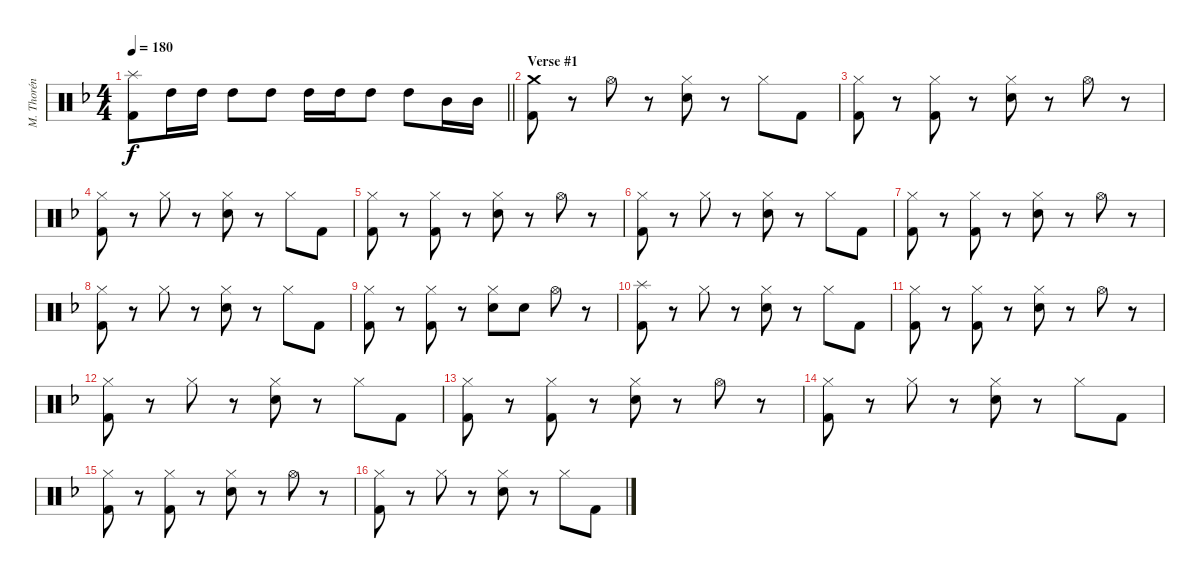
\track ("M. Thorén (Drums)" "M. Thorén ") {instrument percussion}
\staff {score}
\articulation defaults
\ts (4 4)
\tempo 180
\clef neutral
\barLineRight lightlight
\ks dminor
("Splash (hit)" "Kick (hit) 2").8{dy f} "High Tom (hit)".16 "High Tom (hit)".16 "High Tom (hit)".8 "High Tom (hit)".8 "High Tom (hit)".16 "High Tom (hit)".16 "High Tom (hit)".8 "High Tom (hit)".8 "Mid Tom (hit)".16 "Mid Tom (hit)".16 |
\section ("" "Verse #1")
("Crash medium (hit)" "Kick (hit) 2").8 r.8 "Hi-Hat (open)".8 r.8 ("Hi-Hat (closed)" "Electric Snare (hit)").8 r.8 "Hi-Hat (closed)".8 "Kick (hit) 2".8 |
("Hi-Hat (closed)" "Kick (hit) 2").8 r.8 ("Hi-Hat (closed)" "Kick (hit) 2").8 r.8 ("Hi-Hat (closed)" "Electric Snare (hit)").8 r.8 "Hi-Hat (open)".8 r.8 |
("Hi-Hat (closed)" "Kick (hit) 2").8 r.8 "Hi-Hat (closed)".8 r.8 ("Hi-Hat (closed)" "Electric Snare (hit)").8 r.8 "Hi-Hat (closed)".8 "Kick (hit) 2".8 |
("Hi-Hat (closed)" "Kick (hit) 2").8 r.8 ("Hi-Hat (closed)" "Kick (hit) 2").8 r.8 ("Hi-Hat (closed)" "Electric Snare (hit)").8 r.8 "Hi-Hat (open)".8 r.8 |
("Hi-Hat (closed)" "Kick (hit) 2").8 r.8 "Hi-Hat (closed)".8 r.8 ("Hi-Hat (closed)" "Electric Snare (hit)").8 r.8 "Hi-Hat (closed)".8 "Kick (hit) 2".8 |
("Hi-Hat (closed)" "Kick (hit) 2").8 r.8 ("Hi-Hat (closed)" "Kick (hit) 2").8 r.8 ("Hi-Hat (closed)" "Electric Snare (hit)").8 r.8 "Hi-Hat (open)".8 r.8 |
("Hi-Hat (closed)" "Kick (hit) 2").8 r.8 "Hi-Hat (closed)".8 r.8 ("Hi-Hat (closed)" "Electric Snare (hit)").8 r.8 "Hi-Hat (closed)".8 "Kick (hit) 2".8 |
("Hi-Hat (closed)" "Kick (hit) 2").8 r.8 ("Hi-Hat (closed)" "Kick (hit) 2").8 r.8 ("Hi-Hat (closed)" "Electric Snare (hit)").8 "Electric Snare (hit)".8 "Hi-Hat (open)".8 r.8 |
("Splash (hit)" "Kick (hit) 2").8 r.8 "Hi-Hat (closed)".8 r.8 ("Hi-Hat (closed)" "Electric Snare (hit)").8 r.8 "Hi-Hat (closed)".8 "Kick (hit) 2".8 |
("Hi-Hat (closed)" "Kick (hit) 2").8 r.8 ("Hi-Hat (closed)" "Kick (hit) 2").8 r.8 ("Hi-Hat (closed)" "Electric Snare (hit)").8 r.8 "Hi-Hat (open)".8 r.8 |
("Hi-Hat (closed)" "Kick (hit) 2").8 r.8 "Hi-Hat (closed)".8 r.8 ("Hi-Hat (closed)" "Electric Snare (hit)").8 r.8 "Hi-Hat (closed)".8 "Kick (hit) 2".8 |
("Hi-Hat (closed)" "Kick (hit) 2").8 r.8 ("Hi-Hat (closed)" "Kick (hit) 2").8 r.8 ("Hi-Hat (closed)" "Electric Snare (hit)").8 r.8 "Hi-Hat (open)".8 r.8 |
("Hi-Hat (closed)" "Kick (hit) 2").8 r.8 "Hi-Hat (closed)".8 r.8 ("Hi-Hat (closed)" "Electric Snare (hit)").8 r.8 "Hi-Hat (closed)".8 "Kick (hit) 2".8 |
("Hi-Hat (closed)" "Kick (hit) 2").8 r.8 ("Hi-Hat (closed)" "Kick (hit) 2").8 r.8 ("Hi-Hat (closed)" "Electric Snare (hit)").8 r.8 "Hi-Hat (open)".8 r.8 |
("Hi-Hat (closed)" "Kick (hit) 2").8 r.8 "Hi-Hat (closed)".8 r.8 ("Hi-Hat (closed)" "Electric Snare (hit)").8 r.8 "Hi-Hat (closed)".8 "Kick (hit) 2".8
